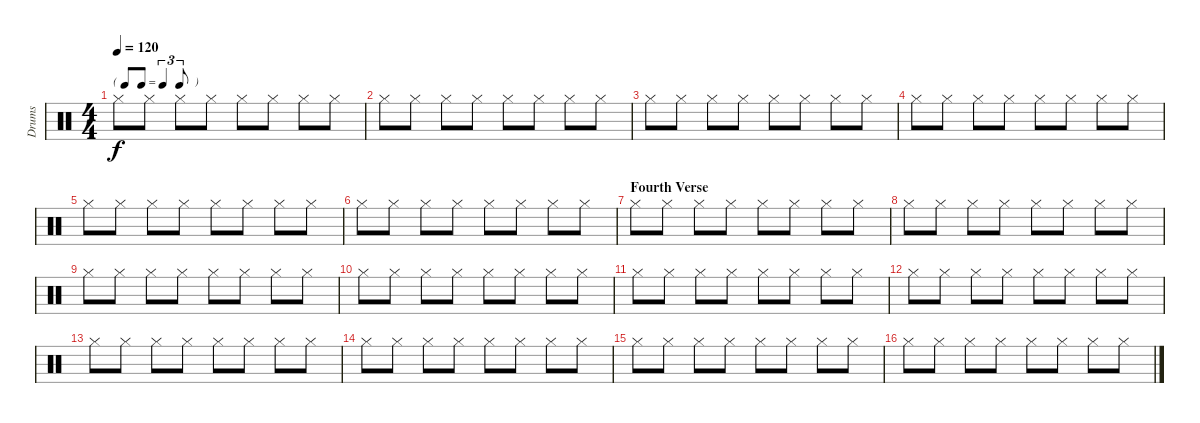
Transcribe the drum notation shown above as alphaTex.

\track ("Drums" "Drums") {instrument percussion}
\staff {score}
\articulation defaults
\ts (4 4)
\tf triplet8th
\tempo 120
\clef neutral
\ks c "Hi-Hat (closed)".8{dy f} "Hi-Hat (closed)".8 "Hi-Hat (closed)".8 "Hi-Hat (closed)".8 "Hi-Hat (closed)".8 "Hi-Hat (closed)".8 "Hi-Hat (closed)".8 "Hi-Hat (closed)".8
|
"Hi-Hat (closed)".8 "Hi-Hat (closed)".8 "Hi-Hat (closed)".8 "Hi-Hat (closed)".8 "Hi-Hat (closed)".8 "Hi-Hat (closed)".8 "Hi-Hat (closed)".8 "Hi-Hat (closed)".8 |
"Hi-Hat (closed)".8 "Hi-Hat (closed)".8 "Hi-Hat (closed)".8 "Hi-Hat (closed)".8 "Hi-Hat (closed)".8 "Hi-Hat (closed)".8 "Hi-Hat (closed)".8 "Hi-Hat (closed)".8 |
"Hi-Hat (closed)".8 "Hi-Hat (closed)".8 "Hi-Hat (closed)".8 "Hi-Hat (closed)".8 "Hi-Hat (closed)".8 "Hi-Hat (closed)".8 "Hi-Hat (closed)".8 "Hi-Hat (closed)".8 |
"Hi-Hat (closed)".8 "Hi-Hat (closed)".8 "Hi-Hat (closed)".8 "Hi-Hat (closed)".8 "Hi-Hat (closed)".8 "Hi-Hat (closed)".8 "Hi-Hat (closed)".8 "Hi-Hat (closed)".8 |
"Hi-Hat (closed)".8 "Hi-Hat (closed)".8 "Hi-Hat (closed)".8 "Hi-Hat (closed)".8 "Hi-Hat (closed)".8 "Hi-Hat (closed)".8 "Hi-Hat (closed)".8 "Hi-Hat (closed)".8 |
\section ("" "Fourth Verse")
"Hi-Hat (closed)".8 "Hi-Hat (closed)".8 "Hi-Hat (closed)".8 "Hi-Hat (closed)".8 "Hi-Hat (closed)".8 "Hi-Hat (closed)".8 "Hi-Hat (closed)".8 "Hi-Hat (closed)".8 |
"Hi-Hat (closed)".8 "Hi-Hat (closed)".8 "Hi-Hat (closed)".8 "Hi-Hat (closed)".8 "Hi-Hat (closed)".8 "Hi-Hat (closed)".8 "Hi-Hat (closed)".8 "Hi-Hat (closed)".8 |
"Hi-Hat (closed)".8 "Hi-Hat (closed)".8 "Hi-Hat (closed)".8 "Hi-Hat (closed)".8 "Hi-Hat (closed)".8 "Hi-Hat (closed)".8 "Hi-Hat (closed)".8 "Hi-Hat (closed)".8 |
"Hi-Hat (closed)".8 "Hi-Hat (closed)".8 "Hi-Hat (closed)".8 "Hi-Hat (closed)".8 "Hi-Hat (closed)".8 "Hi-Hat (closed)".8 "Hi-Hat (closed)".8 "Hi-Hat (closed)".8 |
"Hi-Hat (closed)".8 "Hi-Hat (closed)".8 "Hi-Hat (closed)".8 "Hi-Hat (closed)".8 "Hi-Hat (closed)".8 "Hi-Hat (closed)".8 "Hi-Hat (closed)".8 "Hi-Hat (closed)".8 |
"Hi-Hat (closed)".8 "Hi-Hat (closed)".8 "Hi-Hat (closed)".8 "Hi-Hat (closed)".8 "Hi-Hat (closed)".8 "Hi-Hat (closed)".8 "Hi-Hat (closed)".8 "Hi-Hat (closed)".8 |
"Hi-Hat (closed)".8 "Hi-Hat (closed)".8 "Hi-Hat (closed)".8 "Hi-Hat (closed)".8 "Hi-Hat (closed)".8 "Hi-Hat (closed)".8 "Hi-Hat (closed)".8 "Hi-Hat (closed)".8 |
"Hi-Hat (closed)".8 "Hi-Hat (closed)".8 "Hi-Hat (closed)".8 "Hi-Hat (closed)".8 "Hi-Hat (closed)".8 "Hi-Hat (closed)".8 "Hi-Hat (closed)".8 "Hi-Hat (closed)".8 |
"Hi-Hat (closed)".8 "Hi-Hat (closed)".8 "Hi-Hat (closed)".8 "Hi-Hat (closed)".8 "Hi-Hat (closed)".8 "Hi-Hat (closed)".8 "Hi-Hat (closed)".8 "Hi-Hat (closed)".8 |
"Hi-Hat (closed)".8 "Hi-Hat (closed)".8 "Hi-Hat (closed)".8 "Hi-Hat (closed)".8 "Hi-Hat (closed)".8 "Hi-Hat (closed)".8 "Hi-Hat (closed)".8 "Hi-Hat (closed)".8
